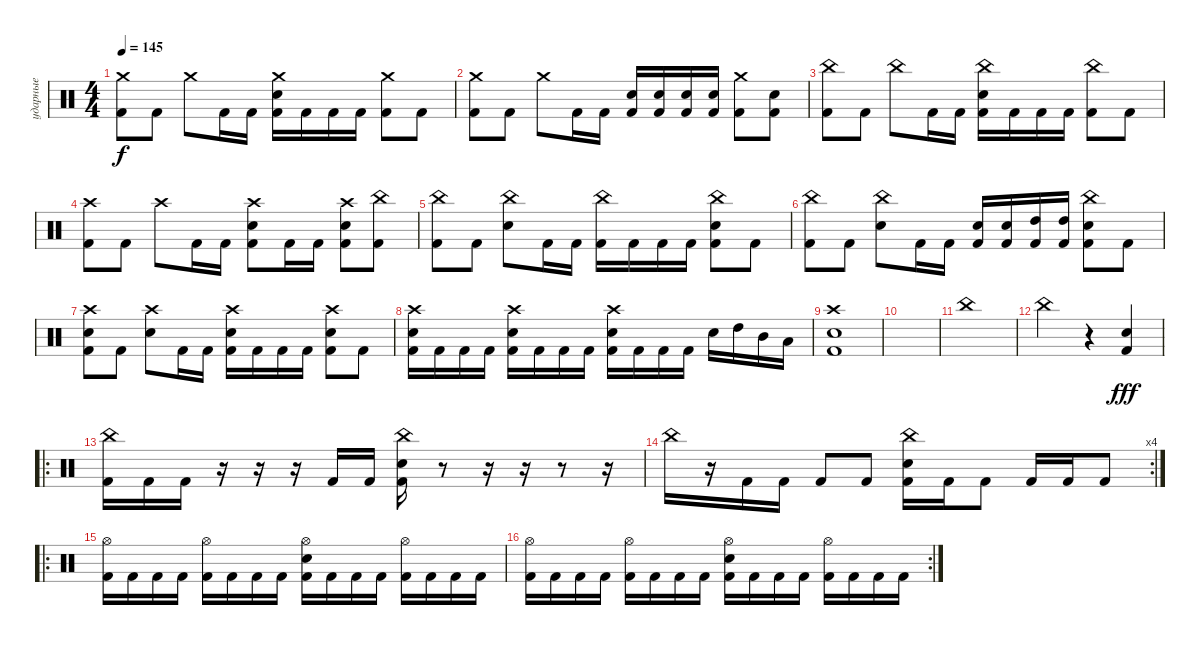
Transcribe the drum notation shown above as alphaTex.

\track (" ударные" " ударные") {instrument percussion}
\staff {score}
\articulation defaults
\ts (4 4)
\tempo 145
\clef neutral
\ks c
("Crash medium (hit)" "Kick (hit) 2").8{dy f} "Kick (hit) 2".8 "Crash medium (hit)".8 "Kick (hit) 2".16 "Kick (hit) 2".16 ("Electric Snare (hit)" "Crash medium (hit)" "Kick (hit) 2").16 "Kick (hit) 2".16 "Kick (hit) 2".16 "Kick (hit) 2".16 ("Crash medium (hit)" "Kick (hit) 2").8 "Kick (hit) 2".8 |
("Crash medium (hit)" "Kick (hit) 2").8 "Kick (hit) 2".8 "Crash medium (hit)".8 "Kick (hit) 2".16 "Kick (hit) 2".16 ("Electric Snare (hit)" "Kick (hit) 2").16 ("Electric Snare (hit)" "Kick (hit) 2").16 ("Electric Snare (hit)" "Kick (hit) 2").16 ("Electric Snare (hit)" "Kick (hit) 2").16 ("Crash medium (hit)" "Kick (hit) 2").8 ("Electric Snare (hit)" "Kick (hit) 2").8 |
("China (hit)" "Kick (hit) 2").8 "Kick (hit) 2".8 "China (hit)".8 "Kick (hit) 2".16 "Kick (hit) 2".16 ("Electric Snare (hit)" "China (hit)" "Kick (hit) 2").16 "Kick (hit) 2".16 "Kick (hit) 2".16 "Kick (hit) 2".16 ("China (hit)" "Kick (hit) 2").8 "Kick (hit) 2".8 |
("Crash high (hit)" "Kick (hit) 2").8 "Kick (hit) 2".8 "Crash high (hit)".8 "Kick (hit) 2".16 "Kick (hit) 2".16 ("Crash high (hit)" "Electric Snare (hit)" "Kick (hit) 2").8 "Kick (hit) 2".16 "Kick (hit) 2".16 ("Crash high (hit)" "Electric Snare (hit)" "Kick (hit) 2").8 ("China (hit)" "Kick (hit) 2").8 |
("China (hit)" "Kick (hit) 2").8 "Kick (hit) 2".8 ("China (hit)" "Electric Snare (hit)").8 "Kick (hit) 2".16 "Kick (hit) 2".16 ("China (hit)" "Kick (hit) 2").16 "Kick (hit) 2".16 "Kick (hit) 2".16 "Kick (hit) 2".16 ("China (hit)" "Electric Snare (hit)" "Kick (hit) 2").8 "Kick (hit) 2".8 |
("China (hit)" "Kick (hit) 2").8 "Kick (hit) 2".8 ("China (hit)" "Electric Snare (hit)").8 "Kick (hit) 2".16 "Kick (hit) 2".16 ("Electric Snare (hit)" "Kick (hit) 2").16 ("Electric Snare (hit)" "Kick (hit) 2").16 ("High Tom (hit)" "Kick (hit) 2").16 ("High Tom (hit)" "Kick (hit) 2").16 ("China (hit)" "Electric Snare (hit)" "Kick (hit) 2").8 "Kick (hit) 2".8 |
("Crash high (hit)" "Electric Snare (hit)" "Kick (hit) 2").8 "Kick (hit) 2".8 ("Crash high (hit)" "Electric Snare (hit)").8 "Kick (hit) 2".16 "Kick (hit) 2".16 ("Crash high (hit)" "Electric Snare (hit)" "Kick (hit) 2").16 "Kick (hit) 2".16 "Kick (hit) 2".16 "Kick (hit) 2".16 ("Crash high (hit)" "Electric Snare (hit)" "Kick (hit) 2").8 "Kick (hit) 2".8 |
("Crash high (hit)" "Electric Snare (hit)" "Kick (hit) 2").16 "Kick (hit) 2".16 "Kick (hit) 2".16 "Kick (hit) 2".16 ("Crash high (hit)" "Electric Snare (hit)" "Kick (hit) 2").16 "Kick (hit) 2".16 "Kick (hit) 2".16 "Kick (hit) 2".16 ("Crash high (hit)" "Electric Snare (hit)" "Kick (hit) 2").16 "Kick (hit) 2".16 "Kick (hit) 2".16 "Kick (hit) 2".16 "Electric Snare (hit)".16 "High Tom (hit)".16 "Mid Tom (hit)".16 "Low Floor Tom (hit)".16 |
("Electric Snare (hit)" "Crash high (hit)" "Kick (hit) 2").1 |
|
"China (hit)".1 |
"China (hit)".2 r.4 ("Electric Snare (hit)" "Kick (hit) 2").4{dy fff} |
\ro
("China (hit)" "Kick (hit) 2").16 "Kick (hit) 2".16 "Kick (hit) 2".16 r.16 r.16 r.16 "Kick (hit) 2".16 "Kick (hit) 2".16 ("China (hit)" "Electric Snare (hit)" "Kick (hit) 2").16 r.8 r.16 r.16 r.8 r.16 |
\rc 4 "China (hit)".16
r.16 "Kick (hit) 2".16 "Kick (hit) 2".16 "Kick (hit) 2".8 "Kick (hit) 2".8 ("China (hit)" "Electric Snare (hit)" "Kick (hit) 2").16 "Kick (hit) 2".16 "Kick (hit) 2".8 "Kick (hit) 2".16 "Kick (hit) 2".16 "Kick (hit) 2".8 |
\ro
("Hi-Hat (open)" "Kick (hit) 2").16 "Kick (hit) 2".16 "Kick (hit) 2".16 "Kick (hit) 2".16 ("Hi-Hat (open)" "Kick (hit) 2").16 "Kick (hit) 2".16 "Kick (hit) 2".16 "Kick (hit) 2".16 ("Hi-Hat (open)" "Electric Snare (hit)" "Kick (hit) 2").16 "Kick (hit) 2".16 "Kick (hit) 2".16 "Kick (hit) 2".16 ("Hi-Hat (open)" "Kick (hit) 2").16 "Kick (hit) 2".16 "Kick (hit) 2".16 "Kick (hit) 2".16 |
\rc 2
("Hi-Hat (open)" "Kick (hit) 2").16 "Kick (hit) 2".16 "Kick (hit) 2".16 "Kick (hit) 2".16 ("Hi-Hat (open)" "Kick (hit) 2").16 "Kick (hit) 2".16 "Kick (hit) 2".16 "Kick (hit) 2".16 ("Hi-Hat (open)" "Electric Snare (hit)" "Kick (hit) 2").16 "Kick (hit) 2".16 "Kick (hit) 2".16 "Kick (hit) 2".16 ("Hi-Hat (open)" "Kick (hit) 2").16 "Kick (hit) 2".16 "Kick (hit) 2".16 "Kick (hit) 2".16
